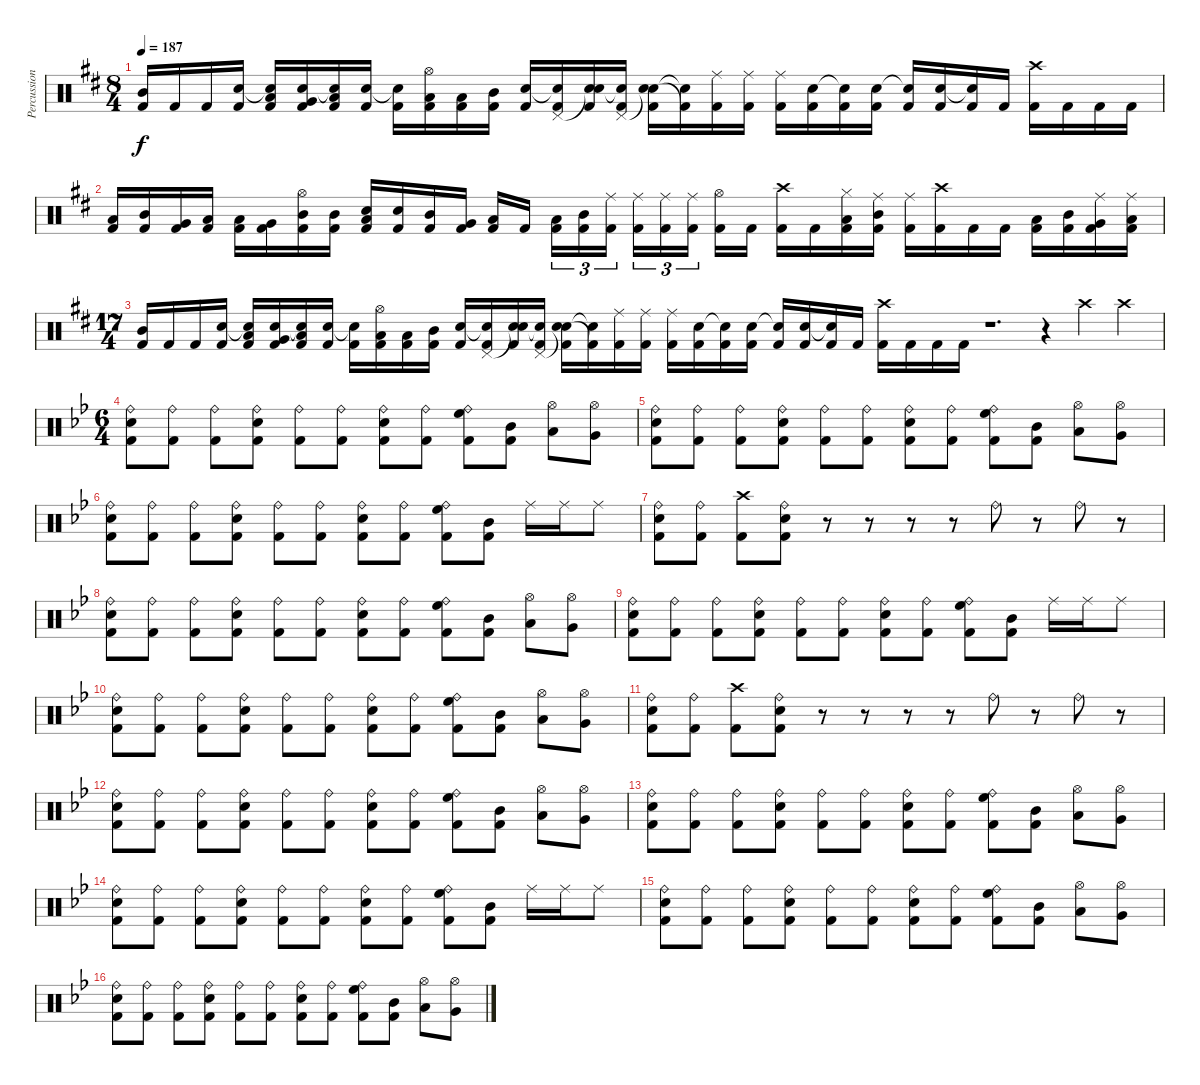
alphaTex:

\track ("Percussion" "Percussion") {instrument percussion}
\staff {score}
\articulation defaults
\ts (8 4)
\tempo 187
\clef neutral
\ks d
("Mid Tom (hit)" "Kick (hit) 2").16{dy f} "Kick (hit) 2".16 "Kick (hit) 2".16 ("Snare (hit) 2" "Kick (hit) 2").16 ("Snare (hit) 2"{t} "Low Tom (hit)" "Kick (hit) 2").16 ("Snare (hit) 2" "Very Low Tom (hit)" "Kick (hit) 2").16 ("Snare (hit)"{t} "Low Floor Tom (hit)" "Kick (hit) 2").16 ("Snare (hit) 2" "Kick (hit) 2").16 ("Snare (hit)"{t} "Kick (hit) 2").16 ("Hi-Hat (open)" "Low Tom (hit)" "Kick (hit) 2").16 ("Low Floor Tom (hit)" "Kick (hit) 2").16 ("Mid Tom (hit)" "Kick (hit) 2").16 ("Snare (hit) 2" "Kick (hit) 2").16 ("Snare (hit)"{t} "Pedal Hi-Hat (hit)" "Kick (hit) 2").16 ("Snare (hit) 2" "Snare (hit)"{t} "Kick (hit) 2").16 ("Snare (hit)"{t} "Pedal Hi-Hat (hit)" "Kick (hit) 2").16 ("Snare (hit) 2" "Snare (hit)"{t} "Kick (hit) 2").16 ("Snare (hit)"{t} "Kick (hit) 2"{t}).16 ("Ride (middle)" "Kick (hit) 2").16 ("Ride (middle)" "Kick (hit) 2").16 ("Ride (middle)" "Kick (hit) 2").16 ("Snare (hit) 2" "Kick (hit) 2").16 ("Snare (hit)"{t} "Kick (hit) 2").16 ("Snare (hit) 2" "Kick (hit) 2").16 ("Snare (hit)"{t} "Kick (hit) 2").16 ("Snare (hit) 2" "Kick (hit) 2").16 ("Snare (hit)"{t} "Kick (hit) 2").16 "Kick (hit) 2".16 ("Crash high (hit)" "Kick (hit) 2").16 "Kick (hit) 2".16 "Kick (hit) 2".16 "Kick (hit) 2".16 |
("Low Tom (hit)" "Kick (hit) 2").16 ("Mid Tom (hit)" "Kick (hit) 2").16 ("Very Low Tom (hit)" "Kick (hit) 2").16 ("Low Floor Tom (hit)" "Kick (hit) 2").16 ("Low Tom (hit)" "Kick (hit) 2").16 ("Very Low Tom (hit)" "Kick (hit) 2").16 ("Hi-Hat (open)" "Mid Tom (hit)" "Kick (hit) 2").16 ("Mid Tom (hit)" "Kick (hit) 2").16 ("Snare (hit) 2" "Low Tom (hit)" "Kick (hit) 2").16 ("Snare (hit) 2" "Kick (hit) 2").16 ("Mid Tom (hit)" "Kick (hit) 2").16 ("Very Low Tom (hit)" "Kick (hit) 2").16 ("Low Floor Tom (hit)" "Kick (hit) 2").16 "Kick (hit) 2".16{beam splitsecondary} ("Low Tom (hit)" "Kick (hit) 2").16{tu (3 2)} ("Mid Tom (hit)" "Kick (hit) 2").16{tu (3 2)} ("Ride (middle)" "Kick (hit) 2").16{tu (3 2)} ("Ride (middle)" "Kick (hit) 2").16{tu (3 2)} ("Ride (middle)" "Kick (hit) 2").16{tu (3 2)} ("Ride (middle)" "Kick (hit) 2").16{tu (3 2) beam splitsecondary} ("Hi-Hat (open)" "Kick (hit) 2").16 "Kick (hit) 2".16 ("Crash high (hit)" "Kick (hit) 2").16 "Kick (hit) 2".16 ("Hi-Hat (closed)" "Low Tom (hit)" "Kick (hit) 2").16 ("Ride (middle)" "Mid Tom (hit)" "Kick (hit) 2").16 ("Ride (middle)" "Kick (hit) 2").16 ("Crash high (hit)" "Kick (hit) 2").16 "Kick (hit) 2".16 "Kick (hit) 2".16 ("Low Tom (hit)" "Kick (hit) 2").16 ("Mid Tom (hit)" "Kick (hit) 2").16 ("Ride (middle)" "Very Low Tom (hit)" "Kick (hit) 2").16 ("Ride (middle)" "Low Floor Tom (hit)" "Kick (hit) 2").16 |
\ts (17 4)
("Mid Tom (hit)" "Kick (hit) 2").16 "Kick (hit) 2".16 "Kick (hit) 2".16 ("Snare (hit) 2" "Kick (hit) 2").16 ("Snare (hit) 2"{t} "Low Tom (hit)" "Kick (hit) 2").16 ("Snare (hit) 2" "Very Low Tom (hit)" "Kick (hit) 2").16 ("Snare (hit)"{t} "Low Floor Tom (hit)" "Kick (hit) 2").16 ("Snare (hit) 2" "Kick (hit) 2").16 ("Snare (hit)"{t} "Kick (hit) 2").16 ("Hi-Hat (open)" "Low Tom (hit)" "Kick (hit) 2").16 ("Low Floor Tom (hit)" "Kick (hit) 2").16 ("Mid Tom (hit)" "Kick (hit) 2").16 ("Snare (hit) 2" "Kick (hit) 2").16 ("Snare (hit)"{t} "Pedal Hi-Hat (hit)" "Kick (hit) 2").16 ("Snare (hit) 2" "Snare (hit)"{t} "Kick (hit) 2").16 ("Snare (hit)"{t} "Pedal Hi-Hat (hit)" "Kick (hit) 2").16 ("Snare (hit) 2" "Snare (hit)"{t} "Kick (hit) 2").16 ("Snare (hit)"{t} "Kick (hit) 2"{t}).16 ("Ride (middle)" "Kick (hit) 2").16 ("Ride (middle)" "Kick (hit) 2").16 ("Ride (middle)" "Kick (hit) 2").16 ("Snare (hit) 2" "Kick (hit) 2").16 ("Snare (hit)"{t} "Kick (hit) 2").16 ("Snare (hit) 2" "Kick (hit) 2").16 ("Snare (hit)"{t} "Kick (hit) 2").16 ("Snare (hit) 2" "Kick (hit) 2").16 ("Snare (hit)"{t} "Kick (hit) 2").16 "Kick (hit) 2".16 ("Crash high (hit)" "Kick (hit) 2").16 "Kick (hit) 2".16 "Kick (hit) 2".16 "Kick (hit) 2".16 r.1{d} r.4 "Crash high (hit)".4 "Crash high (hit)".4 |
\ts (6 4)
\ks bb
("Ride (bell)" "Snare (hit) 2" "Kick (hit) 2").8 ("Ride (bell)" "Kick (hit) 2").8 ("Ride (bell)" "Kick (hit) 2").8 ("Ride (bell)" "Snare (hit) 2" "Kick (hit) 2").8 ("Ride (bell)" "Kick (hit) 2").8 ("Ride (bell)" "Kick (hit) 2").8 ("Ride (bell)" "Snare (hit) 2" "Kick (hit) 2").8 ("Ride (bell)" "Kick (hit) 2").8 ("Ride (bell)" "High Floor Tom (hit)" "Kick (hit) 2").8 ("Mid Tom (hit)" "Kick (hit) 2").8 ("Low Tom (hit)" "Hi-Hat (open)").8 ("Very Low Tom (hit)" "Hi-Hat (open)").8 |
("Ride (bell)" "Snare (hit) 2" "Kick (hit) 2").8 ("Ride (bell)" "Kick (hit) 2").8 ("Ride (bell)" "Kick (hit) 2").8 ("Ride (bell)" "Snare (hit) 2" "Kick (hit) 2").8 ("Ride (bell)" "Kick (hit) 2").8 ("Ride (bell)" "Kick (hit) 2").8 ("Ride (bell)" "Snare (hit) 2" "Kick (hit) 2").8 ("Ride (bell)" "Kick (hit) 2").8 ("Ride (bell)" "High Floor Tom (hit)" "Kick (hit) 2").8 ("Mid Tom (hit)" "Kick (hit) 2").8 ("Low Tom (hit)" "Hi-Hat (open)").8 ("Very Low Tom (hit)" "Hi-Hat (open)").8 |
("Ride (bell)" "Snare (hit) 2" "Kick (hit) 2").8 ("Ride (bell)" "Kick (hit) 2").8 ("Ride (bell)" "Kick (hit) 2").8 ("Ride (bell)" "Snare (hit) 2" "Kick (hit) 2").8 ("Ride (bell)" "Kick (hit) 2").8 ("Ride (bell)" "Kick (hit) 2").8 ("Ride (bell)" "Snare (hit) 2" "Kick (hit) 2").8 ("Ride (bell)" "Kick (hit) 2").8 ("Ride (bell)" "High Floor Tom (hit)" "Kick (hit) 2").8 ("Mid Tom (hit)" "Kick (hit) 2").8 "Ride (middle)".16 "Ride (middle)".16 "Ride (middle)".8 |
("Ride (bell)" "Snare (hit) 2" "Kick (hit) 2").8 ("Ride (bell)" "Kick (hit) 2").8 ("Crash high (hit)" "Kick (hit) 2").8 ("Ride (bell)" "Snare (hit) 2" "Kick (hit) 2").8 r.8 r.8 r.8 r.8 "Ride (bell)".8 r.8 "Ride (bell)".8 r.8 |
("Ride (bell)" "Snare (hit) 2" "Kick (hit) 2").8 ("Ride (bell)" "Kick (hit) 2").8 ("Ride (bell)" "Kick (hit) 2").8 ("Ride (bell)" "Snare (hit) 2" "Kick (hit) 2").8 ("Ride (bell)" "Kick (hit) 2").8 ("Ride (bell)" "Kick (hit) 2").8 ("Ride (bell)" "Snare (hit) 2" "Kick (hit) 2").8 ("Ride (bell)" "Kick (hit) 2").8 ("Ride (bell)" "High Floor Tom (hit)" "Kick (hit) 2").8 ("Mid Tom (hit)" "Kick (hit) 2").8 ("Low Tom (hit)" "Hi-Hat (open)").8 ("Very Low Tom (hit)" "Hi-Hat (open)").8 |
("Ride (bell)" "Snare (hit) 2" "Kick (hit) 2").8 ("Ride (bell)" "Kick (hit) 2").8 ("Ride (bell)" "Kick (hit) 2").8 ("Ride (bell)" "Snare (hit) 2" "Kick (hit) 2").8 ("Ride (bell)" "Kick (hit) 2").8 ("Ride (bell)" "Kick (hit) 2").8 ("Ride (bell)" "Snare (hit) 2" "Kick (hit) 2").8 ("Ride (bell)" "Kick (hit) 2").8 ("Ride (bell)" "High Floor Tom (hit)" "Kick (hit) 2").8 ("Mid Tom (hit)" "Kick (hit) 2").8 "Ride (middle)".16 "Ride (middle)".16 "Ride (middle)".8 |
("Ride (bell)" "Snare (hit) 2" "Kick (hit) 2").8 ("Ride (bell)" "Kick (hit) 2").8 ("Ride (bell)" "Kick (hit) 2").8 ("Ride (bell)" "Snare (hit) 2" "Kick (hit) 2").8 ("Ride (bell)" "Kick (hit) 2").8 ("Ride (bell)" "Kick (hit) 2").8 ("Ride (bell)" "Snare (hit) 2" "Kick (hit) 2").8 ("Ride (bell)" "Kick (hit) 2").8 ("Ride (bell)" "High Floor Tom (hit)" "Kick (hit) 2").8 ("Mid Tom (hit)" "Kick (hit) 2").8 ("Low Tom (hit)" "Hi-Hat (open)").8 ("Very Low Tom (hit)" "Hi-Hat (open)").8 |
("Ride (bell)" "Snare (hit) 2" "Kick (hit) 2").8 ("Ride (bell)" "Kick (hit) 2").8 ("Crash high (hit)" "Kick (hit) 2").8 ("Ride (bell)" "Snare (hit) 2" "Kick (hit) 2").8 r.8 r.8 r.8 r.8 "Ride (bell)".8 r.8 "Ride (bell)".8 r.8 |
("Ride (bell)" "Snare (hit) 2" "Kick (hit) 2").8 ("Ride (bell)" "Kick (hit) 2").8 ("Ride (bell)" "Kick (hit) 2").8 ("Ride (bell)" "Snare (hit) 2" "Kick (hit) 2").8 ("Ride (bell)" "Kick (hit) 2").8 ("Ride (bell)" "Kick (hit) 2").8 ("Ride (bell)" "Snare (hit) 2" "Kick (hit) 2").8 ("Ride (bell)" "Kick (hit) 2").8 ("Ride (bell)" "High Floor Tom (hit)" "Kick (hit) 2").8 ("Mid Tom (hit)" "Kick (hit) 2").8 ("Low Tom (hit)" "Hi-Hat (open)").8 ("Very Low Tom (hit)" "Hi-Hat (open)").8 |
("Ride (bell)" "Snare (hit) 2" "Kick (hit) 2").8 ("Ride (bell)" "Kick (hit) 2").8 ("Ride (bell)" "Kick (hit) 2").8 ("Ride (bell)" "Snare (hit) 2" "Kick (hit) 2").8 ("Ride (bell)" "Kick (hit) 2").8 ("Ride (bell)" "Kick (hit) 2").8 ("Ride (bell)" "Snare (hit) 2" "Kick (hit) 2").8 ("Ride (bell)" "Kick (hit) 2").8 ("Ride (bell)" "High Floor Tom (hit)" "Kick (hit) 2").8 ("Mid Tom (hit)" "Kick (hit) 2").8 ("Low Tom (hit)" "Hi-Hat (open)").8 ("Very Low Tom (hit)" "Hi-Hat (open)").8 |
("Ride (bell)" "Snare (hit) 2" "Kick (hit) 2").8 ("Ride (bell)" "Kick (hit) 2").8 ("Ride (bell)" "Kick (hit) 2").8 ("Ride (bell)" "Snare (hit) 2" "Kick (hit) 2").8 ("Ride (bell)" "Kick (hit) 2").8 ("Ride (bell)" "Kick (hit) 2").8 ("Ride (bell)" "Snare (hit) 2" "Kick (hit) 2").8 ("Ride (bell)" "Kick (hit) 2").8 ("Ride (bell)" "High Floor Tom (hit)" "Kick (hit) 2").8 ("Mid Tom (hit)" "Kick (hit) 2").8 "Ride (middle)".16 "Ride (middle)".16 "Ride (middle)".8 |
("Ride (bell)" "Snare (hit) 2" "Kick (hit) 2").8 ("Ride (bell)" "Kick (hit) 2").8 ("Ride (bell)" "Kick (hit) 2").8 ("Ride (bell)" "Snare (hit) 2" "Kick (hit) 2").8 ("Ride (bell)" "Kick (hit) 2").8 ("Ride (bell)" "Kick (hit) 2").8 ("Ride (bell)" "Snare (hit) 2" "Kick (hit) 2").8 ("Ride (bell)" "Kick (hit) 2").8 ("Ride (bell)" "High Floor Tom (hit)" "Kick (hit) 2").8 ("Mid Tom (hit)" "Kick (hit) 2").8 ("Low Tom (hit)" "Hi-Hat (open)").8 ("Very Low Tom (hit)" "Hi-Hat (open)").8 |
("Ride (bell)" "Snare (hit) 2" "Kick (hit) 2").8 ("Ride (bell)" "Kick (hit) 2").8 ("Ride (bell)" "Kick (hit) 2").8 ("Ride (bell)" "Snare (hit) 2" "Kick (hit) 2").8 ("Ride (bell)" "Kick (hit) 2").8 ("Ride (bell)" "Kick (hit) 2").8 ("Ride (bell)" "Snare (hit) 2" "Kick (hit) 2").8 ("Ride (bell)" "Kick (hit) 2").8 ("Ride (bell)" "High Floor Tom (hit)" "Kick (hit) 2").8 ("Mid Tom (hit)" "Kick (hit) 2").8 ("Low Tom (hit)" "Hi-Hat (open)").8 ("Very Low Tom (hit)" "Hi-Hat (open)").8
